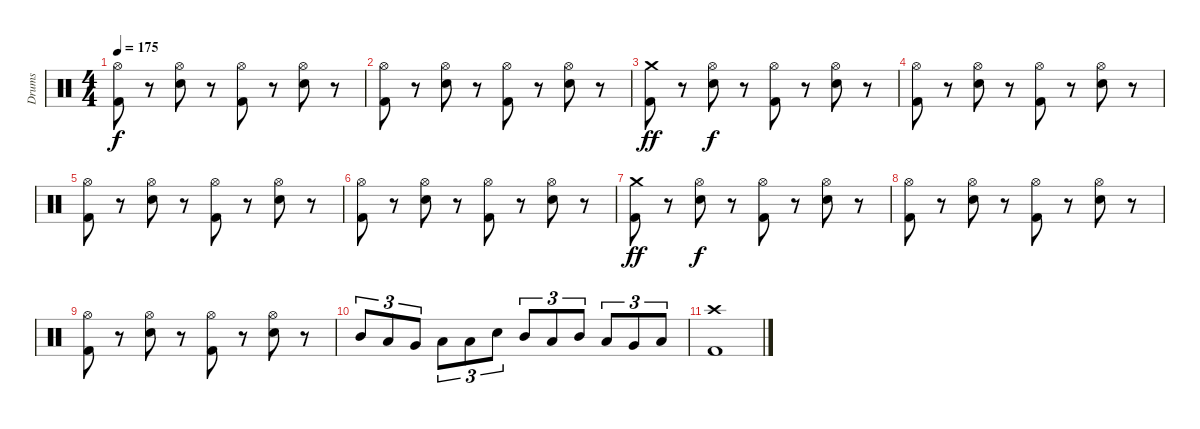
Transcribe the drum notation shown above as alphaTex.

\track ("Drums" "Drums") {instrument percussion}
\staff {score}
\articulation defaults
\ts (4 4)
\tempo 175
\clef neutral
\ks c
("Hi-Hat (open)" "Kick (hit) 2").8{dy f} r.8 ("Hi-Hat (open)" "Electric Snare (hit)").8 r.8 ("Hi-Hat (open)" "Kick (hit) 2").8 r.8 ("Hi-Hat (open)" "Electric Snare (hit)").8 r.8 |
("Hi-Hat (open)" "Kick (hit) 2").8 r.8 ("Hi-Hat (open)" "Electric Snare (hit)").8 r.8 ("Hi-Hat (open)" "Kick (hit) 2").8 r.8 ("Hi-Hat (open)" "Electric Snare (hit)").8 r.8 |
("Crash medium (hit)" "Kick (hit) 2").8{dy ff} r.8 ("Hi-Hat (open)" "Electric Snare (hit)").8{dy f} r.8 ("Hi-Hat (open)" "Kick (hit) 2").8 r.8 ("Hi-Hat (open)" "Electric Snare (hit)").8 r.8 |
("Hi-Hat (open)" "Kick (hit) 2").8 r.8 ("Hi-Hat (open)" "Electric Snare (hit)").8 r.8 ("Hi-Hat (open)" "Kick (hit) 2").8 r.8 ("Hi-Hat (open)" "Electric Snare (hit)").8 r.8 |
("Hi-Hat (open)" "Kick (hit) 2").8 r.8 ("Hi-Hat (open)" "Electric Snare (hit)").8 r.8 ("Hi-Hat (open)" "Kick (hit) 2").8 r.8 ("Hi-Hat (open)" "Electric Snare (hit)").8 r.8 |
("Hi-Hat (open)" "Kick (hit) 2").8 r.8 ("Hi-Hat (open)" "Electric Snare (hit)").8 r.8 ("Hi-Hat (open)" "Kick (hit) 2").8 r.8 ("Hi-Hat (open)" "Electric Snare (hit)").8 r.8 |
("Crash medium (hit)" "Kick (hit) 2").8{dy ff} r.8 ("Hi-Hat (open)" "Electric Snare (hit)").8{dy f} r.8 ("Hi-Hat (open)" "Kick (hit) 2").8 r.8 ("Hi-Hat (open)" "Electric Snare (hit)").8 r.8 |
("Hi-Hat (open)" "Kick (hit) 2").8 r.8 ("Hi-Hat (open)" "Electric Snare (hit)").8 r.8 ("Hi-Hat (open)" "Kick (hit) 2").8 r.8 ("Hi-Hat (open)" "Electric Snare (hit)").8 r.8 |
("Hi-Hat (open)" "Kick (hit) 2").8 r.8 ("Hi-Hat (open)" "Electric Snare (hit)").8 r.8 ("Hi-Hat (open)" "Kick (hit) 2").8 r.8 ("Hi-Hat (open)" "Electric Snare (hit)").8 r.8 |
"Mid Tom (hit)".8{tu (3 2)} "Low Tom (hit)".8{tu (3 2)} "Very Low Tom (hit)".8{tu (3 2)} "Low Floor Tom (hit)".8{tu (3 2)} "Low Floor Tom (hit)".8{tu (3 2)} "Electric Snare (hit)".8{tu (3 2)} "Mid Tom (hit)".8{tu (3 2)} "Low Tom (hit)".8{tu (3 2)} "Mid Tom (hit)".8{tu (3 2)} "Low Tom (hit)".8{tu (3 2)} "Very Low Tom (hit)".8{tu (3 2)} "Low Floor Tom (hit)".8{tu (3 2)} |
("Crash high (hit)" "Kick (hit) 2").1
